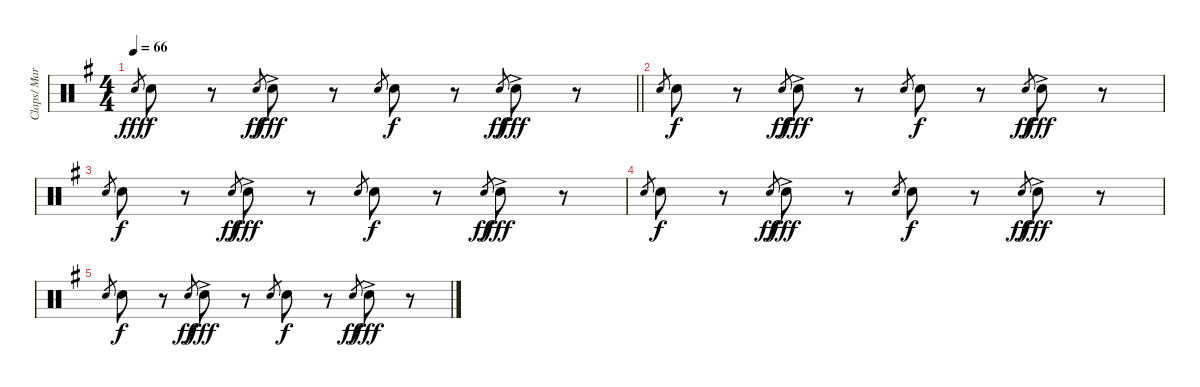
\track ("Claps/ Marching FX" "Claps/ Mar") {instrument percussion}
\staff {score}
\articulation defaults
\ts (4 4)
\tempo 66
\clef neutral
\barLineRight lightlight
\ks g "Hand Clap (hit)".8{gr dy fff} "Hand Clap (hit)".8{dy f balance 12}
r.8 "Hand Clap (hit)".8{gr dy ff} "Hand Clap (hit)"{ac}.8{dy fff balance 4} r.8 "Hand Clap (hit)".8{gr} "Hand Clap (hit)".8{dy f balance 12} r.8 "Hand Clap (hit)".8{gr dy ff} "Hand Clap (hit)"{ac}.8{dy fff balance 4} r.8 |
"Hand Clap (hit)".8{gr} "Hand Clap (hit)".8{dy f balance 12} r.8 "Hand Clap (hit)".8{gr dy ff} "Hand Clap (hit)"{ac}.8{dy fff balance 4} r.8 "Hand Clap (hit)".8{gr} "Hand Clap (hit)".8{dy f balance 12} r.8 "Hand Clap (hit)".8{gr dy ff} "Hand Clap (hit)"{ac}.8{dy fff balance 4} r.8 |
"Hand Clap (hit)".8{gr} "Hand Clap (hit)".8{dy f balance 12} r.8 "Hand Clap (hit)".8{gr dy ff} "Hand Clap (hit)"{ac}.8{dy fff balance 4} r.8 "Hand Clap (hit)".8{gr} "Hand Clap (hit)".8{dy f balance 12} r.8 "Hand Clap (hit)".8{gr dy ff} "Hand Clap (hit)"{ac}.8{dy fff balance 4} r.8 |
"Hand Clap (hit)".8{gr} "Hand Clap (hit)".8{dy f balance 12} r.8 "Hand Clap (hit)".8{gr dy ff} "Hand Clap (hit)"{ac}.8{dy fff balance 4} r.8 "Hand Clap (hit)".8{gr} "Hand Clap (hit)".8{dy f balance 12} r.8 "Hand Clap (hit)".8{gr dy ff} "Hand Clap (hit)"{ac}.8{dy fff balance 4} r.8 |
"Hand Clap (hit)".8{gr} "Hand Clap (hit)".8{dy f balance 12} r.8 "Hand Clap (hit)".8{gr dy ff} "Hand Clap (hit)"{ac}.8{dy fff balance 4} r.8 "Hand Clap (hit)".8{gr} "Hand Clap (hit)".8{dy f balance 12} r.8 "Hand Clap (hit)".8{gr dy ff} "Hand Clap (hit)"{ac}.8{dy fff balance 4} r.8
